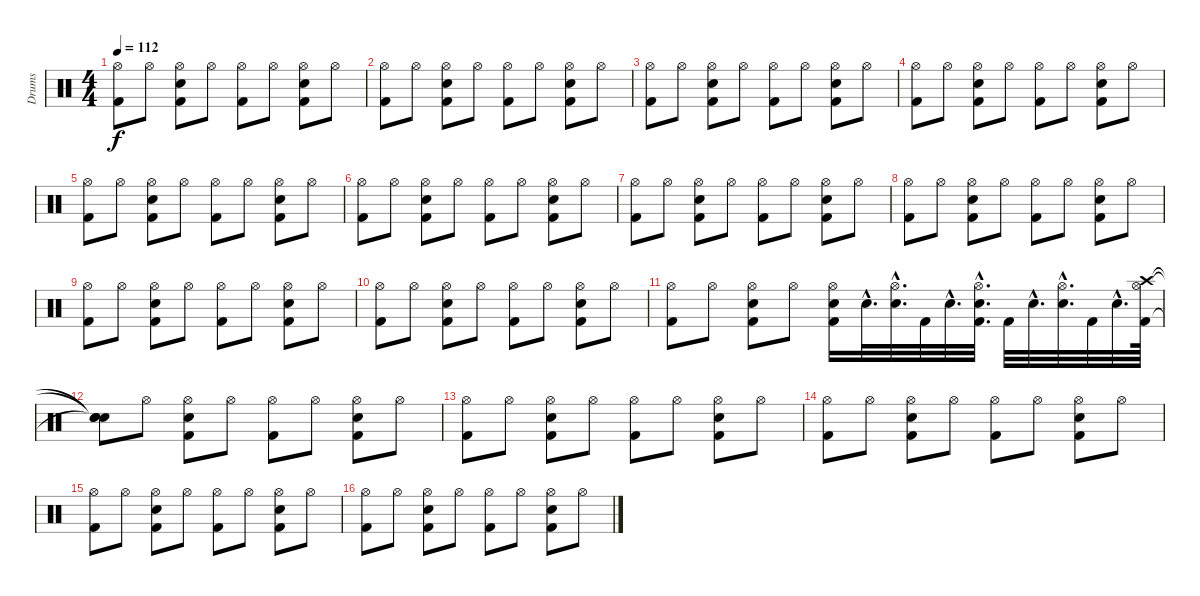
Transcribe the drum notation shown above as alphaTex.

\track ("Drums" "Drums") {instrument percussion}
\staff {score}
\articulation defaults
\ts (4 4)
\tempo 112
\clef neutral
\ks c
("Hi-Hat (open)" "Kick (hit) 2").8{dy f} "Hi-Hat (open)".8 ("Hi-Hat (open)" "Kick (hit) 2" "Snare (hit) 2").8 "Hi-Hat (open)".8 ("Kick (hit) 2" "Hi-Hat (open)").8 "Hi-Hat (open)".8 ("Kick (hit) 2" "Snare (hit) 2" "Hi-Hat (open)").8 "Hi-Hat (open)".8 |
("Hi-Hat (open)" "Kick (hit) 2").8 "Hi-Hat (open)".8 ("Hi-Hat (open)" "Kick (hit) 2" "Snare (hit) 2").8 "Hi-Hat (open)".8 ("Kick (hit) 2" "Hi-Hat (open)").8 "Hi-Hat (open)".8 ("Kick (hit) 2" "Snare (hit) 2" "Hi-Hat (open)").8 "Hi-Hat (open)".8 |
("Hi-Hat (open)" "Kick (hit) 2").8 "Hi-Hat (open)".8 ("Hi-Hat (open)" "Kick (hit) 2" "Snare (hit) 2").8 "Hi-Hat (open)".8 ("Kick (hit) 2" "Hi-Hat (open)").8 "Hi-Hat (open)".8 ("Kick (hit) 2" "Snare (hit) 2" "Hi-Hat (open)").8 "Hi-Hat (open)".8 |
("Hi-Hat (open)" "Kick (hit) 2").8 "Hi-Hat (open)".8 ("Hi-Hat (open)" "Kick (hit) 2" "Snare (hit) 2").8 "Hi-Hat (open)".8 ("Kick (hit) 2" "Hi-Hat (open)").8 "Hi-Hat (open)".8 ("Kick (hit) 2" "Snare (hit) 2" "Hi-Hat (open)").8 "Hi-Hat (open)".8 |
("Hi-Hat (open)" "Kick (hit) 2").8 "Hi-Hat (open)".8 ("Hi-Hat (open)" "Kick (hit) 2" "Snare (hit) 2").8 "Hi-Hat (open)".8 ("Kick (hit) 2" "Hi-Hat (open)").8 "Hi-Hat (open)".8 ("Kick (hit) 2" "Snare (hit) 2" "Hi-Hat (open)").8 "Hi-Hat (open)".8 |
("Hi-Hat (open)" "Kick (hit) 2").8 "Hi-Hat (open)".8 ("Hi-Hat (open)" "Kick (hit) 2" "Snare (hit) 2").8 "Hi-Hat (open)".8 ("Kick (hit) 2" "Hi-Hat (open)").8 "Hi-Hat (open)".8 ("Kick (hit) 2" "Snare (hit) 2" "Hi-Hat (open)").8 "Hi-Hat (open)".8 |
("Hi-Hat (open)" "Kick (hit) 2").8 "Hi-Hat (open)".8 ("Hi-Hat (open)" "Kick (hit) 2" "Snare (hit) 2").8 "Hi-Hat (open)".8 ("Kick (hit) 2" "Hi-Hat (open)").8 "Hi-Hat (open)".8 ("Kick (hit) 2" "Snare (hit) 2" "Hi-Hat (open)").8 "Hi-Hat (open)".8 |
("Hi-Hat (open)" "Kick (hit) 2").8 "Hi-Hat (open)".8 ("Hi-Hat (open)" "Kick (hit) 2" "Snare (hit) 2").8 "Hi-Hat (open)".8 ("Kick (hit) 2" "Hi-Hat (open)").8 "Hi-Hat (open)".8 ("Kick (hit) 2" "Snare (hit) 2" "Hi-Hat (open)").8 "Hi-Hat (open)".8 |
("Hi-Hat (open)" "Kick (hit) 2").8 "Hi-Hat (open)".8 ("Hi-Hat (open)" "Kick (hit) 2" "Snare (hit) 2").8 "Hi-Hat (open)".8 ("Kick (hit) 2" "Hi-Hat (open)").8 "Hi-Hat (open)".8 ("Kick (hit) 2" "Snare (hit) 2" "Hi-Hat (open)").8 "Hi-Hat (open)".8 |
("Hi-Hat (open)" "Kick (hit) 2").8 "Hi-Hat (open)".8 ("Hi-Hat (open)" "Kick (hit) 2" "Snare (hit) 2").8 "Hi-Hat (open)".8 ("Kick (hit) 2" "Hi-Hat (open)").8 "Hi-Hat (open)".8 ("Kick (hit) 2" "Snare (hit) 2" "Hi-Hat (open)").8 "Hi-Hat (open)".8 |
("Hi-Hat (open)" "Kick (hit) 2").8 "Hi-Hat (open)".8 ("Hi-Hat (open)" "Kick (hit) 2" "Snare (hit) 2").8 "Hi-Hat (open)".8 ("Snare (hit) 2" "Hi-Hat (open)" "Kick (hit) 2").16 "Snare (hit) 2"{hac}.32{d} ("Snare (hit) 2"{hac} "Hi-Hat (open)"{hac}).32{d} "Kick (hit) 2".32 "Snare (hit) 2"{hac}.32{d} ("Hi-Hat (open)"{hac} "Snare (hit) 2"{hac} "Kick (hit) 2"{hac}).32{d} "Kick (hit) 2".32 "Snare (hit) 2"{hac}.32{d} ("Snare (hit) 2"{hac} "Hi-Hat (open)"{hac}).32{d} "Kick (hit) 2".32 "Snare (hit) 2"{hac}.32{d} ("Kick (hit) 2" "Hi-Hat (open)" "Crash high (hit)").64 |
("Snare (hit)"{t} "Snare (hit)"{t} "Snare (hit)"{t}).8 "Hi-Hat (open)".8 ("Snare (hit) 2" "Hi-Hat (open)" "Kick (hit) 2").8 "Hi-Hat (open)".8 ("Hi-Hat (open)" "Kick (hit) 2").8 "Hi-Hat (open)".8 ("Snare (hit) 2" "Kick (hit) 2" "Hi-Hat (open)").8 "Hi-Hat (open)".8 |
("Hi-Hat (open)" "Kick (hit) 2").8 "Hi-Hat (open)".8 ("Hi-Hat (open)" "Kick (hit) 2" "Snare (hit) 2").8 "Hi-Hat (open)".8 ("Kick (hit) 2" "Hi-Hat (open)").8 "Hi-Hat (open)".8 ("Kick (hit) 2" "Snare (hit) 2" "Hi-Hat (open)").8 "Hi-Hat (open)".8 |
("Hi-Hat (open)" "Kick (hit) 2").8 "Hi-Hat (open)".8 ("Hi-Hat (open)" "Kick (hit) 2" "Snare (hit) 2").8 "Hi-Hat (open)".8 ("Kick (hit) 2" "Hi-Hat (open)").8 "Hi-Hat (open)".8 ("Kick (hit) 2" "Snare (hit) 2" "Hi-Hat (open)").8 "Hi-Hat (open)".8 |
("Hi-Hat (open)" "Kick (hit) 2").8 "Hi-Hat (open)".8 ("Hi-Hat (open)" "Kick (hit) 2" "Snare (hit) 2").8 "Hi-Hat (open)".8 ("Kick (hit) 2" "Hi-Hat (open)").8 "Hi-Hat (open)".8 ("Kick (hit) 2" "Snare (hit) 2" "Hi-Hat (open)").8 "Hi-Hat (open)".8 |
("Hi-Hat (open)" "Kick (hit) 2").8 "Hi-Hat (open)".8 ("Hi-Hat (open)" "Kick (hit) 2" "Snare (hit) 2").8 "Hi-Hat (open)".8 ("Kick (hit) 2" "Hi-Hat (open)").8 "Hi-Hat (open)".8 ("Kick (hit) 2" "Snare (hit) 2" "Hi-Hat (open)").8 "Hi-Hat (open)".8
